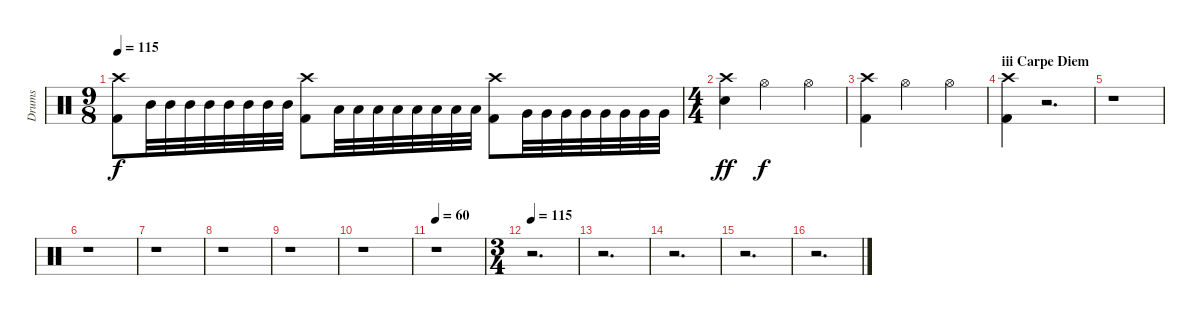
\track ("Drums" "Drums") {instrument percussion}
\staff {score}
\articulation defaults
\ts (9 8)
\tempo 115
\clef neutral
\ks c
("Kick (hit) 2" "Crash high (hit)").8{dy f} "Mid Tom (hit)".32 "Mid Tom (hit)".32 "Mid Tom (hit)".32 "Mid Tom (hit)".32 "Mid Tom (hit)".32 "Mid Tom (hit)".32 "Mid Tom (hit)".32 "Mid Tom (hit)".32 ("Kick (hit) 2" "Crash high (hit)").8 "Low Tom (hit)".32 "Low Tom (hit)".32 "Low Tom (hit)".32 "Low Tom (hit)".32 "Low Tom (hit)".32 "Low Tom (hit)".32 "Low Tom (hit)".32 "Low Tom (hit)".32 ("Kick (hit) 2" "Crash high (hit)").8 "Very Low Tom (hit)".32 "Very Low Tom (hit)".32 "Very Low Tom (hit)".32 "Very Low Tom (hit)".32 "Very Low Tom (hit)".32 "Very Low Tom (hit)".32 "Very Low Tom (hit)".32 "Very Low Tom (hit)".32 |
\ts (4 4)
("Electric Snare (hit)" "Crash high (hit)").4{dy ff} "Hi-Hat (open)".2{dy f} "Hi-Hat (open)".4 |
("Kick (hit) 2" "Crash high (hit)").4 "Hi-Hat (open)".2 "Hi-Hat (open)".4 |
\section ("" "iii Carpe Diem")
("Kick (hit) 2" "Crash high (hit)").4 r.2{d} |
r.1 |
r.1 |
r.1 |
r.1 |
r.1 |
r.1 |
\tempo 60
r.1 |
\ts (3 4)
\tempo 115
r.2{d} |
r.2{d} |
r.2{d} |
r.2{d} |
r.2{d}
